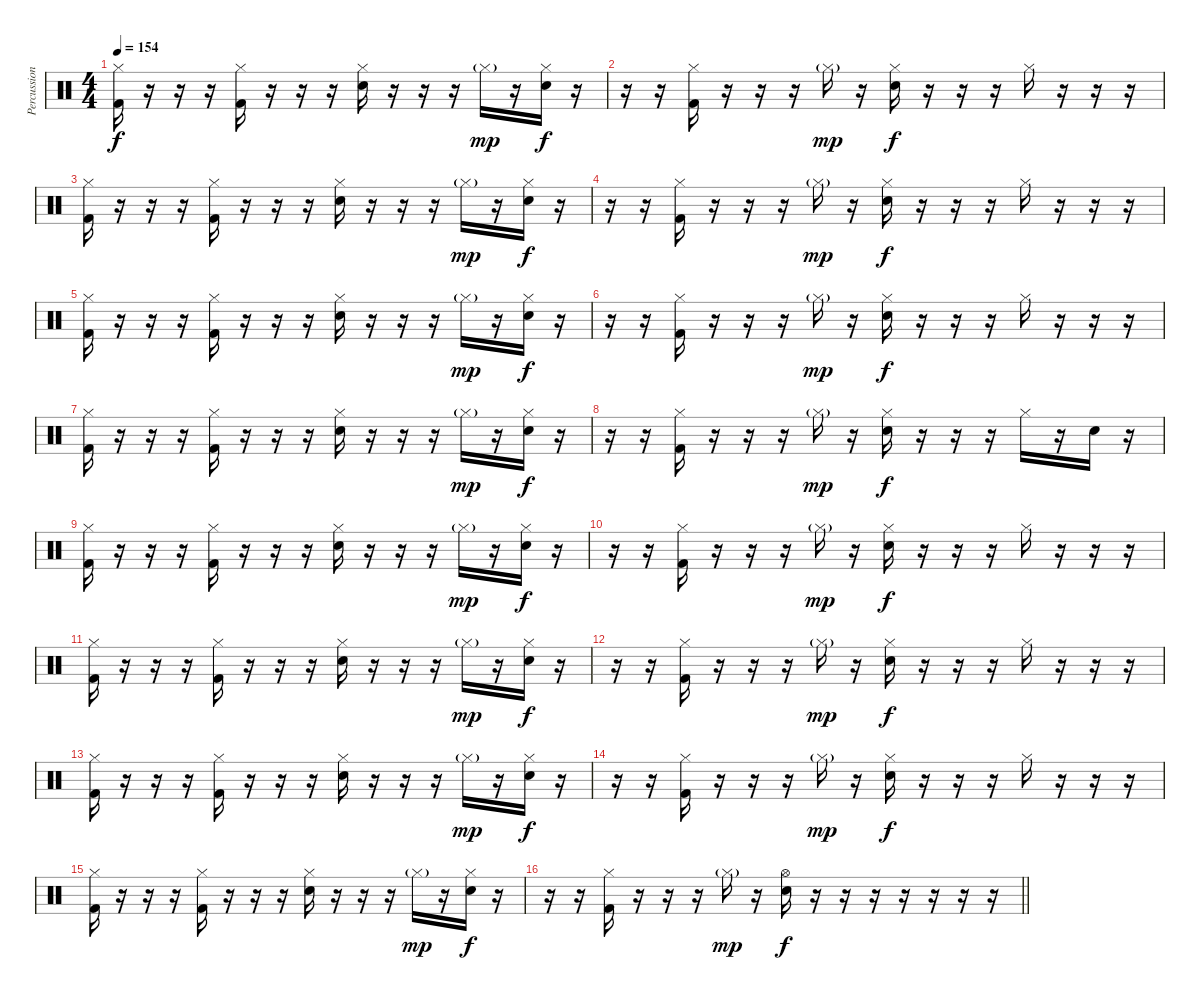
\track ("Percussion" "Percussion") {instrument percussion}
\staff {score}
\articulation defaults
\ts (4 4)
\section ("" "")
\tempo 154
\clef neutral
\ks c
("Hi-Hat (closed)" "Kick (hit) 2").16{dy f} r.16 r.16 r.16 ("Hi-Hat (closed)" "Kick (hit) 2").16 r.16 r.16 r.16 ("Hi-Hat (closed)" "Electric Snare (hit)").16 r.16 r.16 r.16 "Hi-Hat (closed)"{g}.16{dy mp} r.16 ("Hi-Hat (closed)" "Electric Snare (hit)").16{dy f} r.16 |
r.16 r.16 ("Hi-Hat (closed)" "Kick (hit) 2").16 r.16 r.16 r.16 "Hi-Hat (closed)"{g}.16{dy mp} r.16 ("Hi-Hat (closed)" "Electric Snare (hit)").16{dy f} r.16 r.16 r.16 "Hi-Hat (closed)".16 r.16 r.16 r.16 |
("Hi-Hat (closed)" "Kick (hit) 2").16 r.16 r.16 r.16 ("Hi-Hat (closed)" "Kick (hit) 2").16 r.16 r.16 r.16 ("Hi-Hat (closed)" "Electric Snare (hit)").16 r.16 r.16 r.16 "Hi-Hat (closed)"{g}.16{dy mp} r.16 ("Hi-Hat (closed)" "Electric Snare (hit)").16{dy f} r.16 |
r.16 r.16 ("Hi-Hat (closed)" "Kick (hit) 2").16 r.16 r.16 r.16 "Hi-Hat (closed)"{g}.16{dy mp} r.16 ("Hi-Hat (closed)" "Electric Snare (hit)").16{dy f} r.16 r.16 r.16 "Hi-Hat (closed)".16 r.16 r.16 r.16 |
("Hi-Hat (closed)" "Kick (hit) 2").16 r.16 r.16 r.16 ("Hi-Hat (closed)" "Kick (hit) 2").16 r.16 r.16 r.16 ("Hi-Hat (closed)" "Electric Snare (hit)").16 r.16 r.16 r.16 "Hi-Hat (closed)"{g}.16{dy mp} r.16 ("Hi-Hat (closed)" "Electric Snare (hit)").16{dy f} r.16 |
r.16 r.16 ("Hi-Hat (closed)" "Kick (hit) 2").16 r.16 r.16 r.16 "Hi-Hat (closed)"{g}.16{dy mp} r.16 ("Hi-Hat (closed)" "Electric Snare (hit)").16{dy f} r.16 r.16 r.16 "Hi-Hat (closed)".16 r.16 r.16 r.16 |
("Hi-Hat (closed)" "Kick (hit) 2").16 r.16 r.16 r.16 ("Hi-Hat (closed)" "Kick (hit) 2").16 r.16 r.16 r.16 ("Hi-Hat (closed)" "Electric Snare (hit)").16 r.16 r.16 r.16 "Hi-Hat (closed)"{g}.16{dy mp} r.16 ("Hi-Hat (closed)" "Electric Snare (hit)").16{dy f} r.16 |
r.16 r.16 ("Hi-Hat (closed)" "Kick (hit) 2").16 r.16 r.16 r.16 "Hi-Hat (closed)"{g}.16{dy mp} r.16 ("Hi-Hat (closed)" "Electric Snare (hit)").16{dy f} r.16 r.16 r.16 "Hi-Hat (closed)".16 r.16 "Electric Snare (hit)".16 r.16 |
("Hi-Hat (closed)" "Kick (hit) 2").16 r.16 r.16 r.16 ("Hi-Hat (closed)" "Kick (hit) 2").16 r.16 r.16 r.16 ("Hi-Hat (closed)" "Electric Snare (hit)").16 r.16 r.16 r.16 "Hi-Hat (closed)"{g}.16{dy mp} r.16 ("Hi-Hat (closed)" "Electric Snare (hit)").16{dy f} r.16 |
r.16 r.16 ("Hi-Hat (closed)" "Kick (hit) 2").16 r.16 r.16 r.16 "Hi-Hat (closed)"{g}.16{dy mp} r.16 ("Hi-Hat (closed)" "Electric Snare (hit)").16{dy f} r.16 r.16 r.16 "Hi-Hat (closed)".16 r.16 r.16 r.16 |
("Hi-Hat (closed)" "Kick (hit) 2").16 r.16 r.16 r.16 ("Hi-Hat (closed)" "Kick (hit) 2").16 r.16 r.16 r.16 ("Hi-Hat (closed)" "Electric Snare (hit)").16 r.16 r.16 r.16 "Hi-Hat (closed)"{g}.16{dy mp} r.16 ("Hi-Hat (closed)" "Electric Snare (hit)").16{dy f} r.16 |
r.16 r.16 ("Hi-Hat (closed)" "Kick (hit) 2").16 r.16 r.16 r.16 "Hi-Hat (closed)"{g}.16{dy mp} r.16 ("Hi-Hat (closed)" "Electric Snare (hit)").16{dy f} r.16 r.16 r.16 "Hi-Hat (closed)".16 r.16 r.16 r.16 |
("Hi-Hat (closed)" "Kick (hit) 2").16 r.16 r.16 r.16 ("Hi-Hat (closed)" "Kick (hit) 2").16 r.16 r.16 r.16 ("Hi-Hat (closed)" "Electric Snare (hit)").16 r.16 r.16 r.16 "Hi-Hat (closed)"{g}.16{dy mp} r.16 ("Hi-Hat (closed)" "Electric Snare (hit)").16{dy f} r.16 |
r.16 r.16 ("Hi-Hat (closed)" "Kick (hit) 2").16 r.16 r.16 r.16 "Hi-Hat (closed)"{g}.16{dy mp} r.16 ("Hi-Hat (closed)" "Electric Snare (hit)").16{dy f} r.16 r.16 r.16 "Hi-Hat (closed)".16 r.16 r.16 r.16 |
("Hi-Hat (closed)" "Kick (hit) 2").16 r.16 r.16 r.16 ("Hi-Hat (closed)" "Kick (hit) 2").16 r.16 r.16 r.16 ("Hi-Hat (closed)" "Electric Snare (hit)").16 r.16 r.16 r.16 "Hi-Hat (closed)"{g}.16{dy mp} r.16 ("Hi-Hat (closed)" "Electric Snare (hit)").16{dy f} r.16 |
\barLineRight lightlight
r.16 r.16 ("Hi-Hat (closed)" "Kick (hit) 2").16 r.16 r.16 r.16 "Hi-Hat (closed)"{g}.16{dy mp} r.16 ("Hi-Hat (open)" "Electric Snare (hit)").16{dy f} r.16 r.16 r.16 r.16 r.16 r.16 r.16
